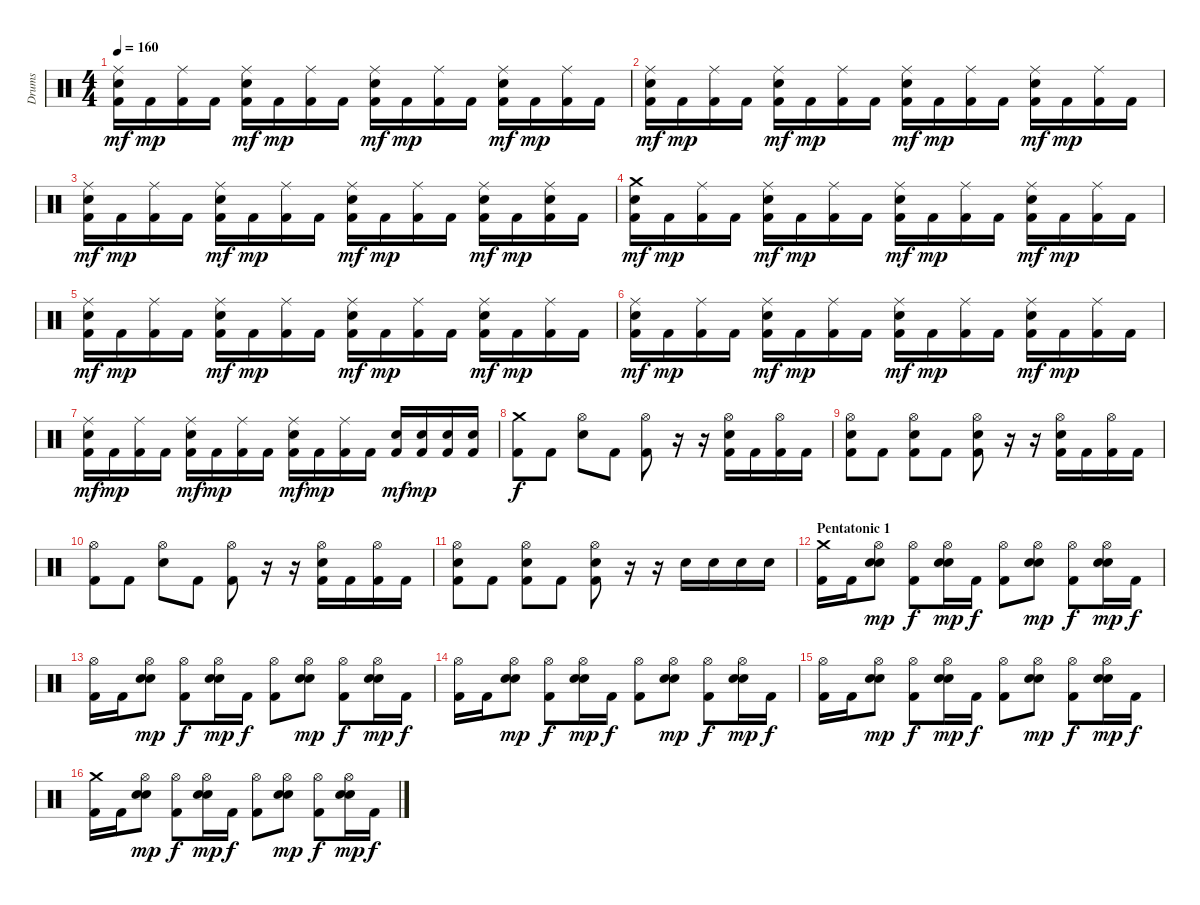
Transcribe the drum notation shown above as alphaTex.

\track ("Drums" "Drums") {instrument percussion}
\staff {score}
\articulation defaults
\ts (4 4)
\tempo 160
\clef neutral
\ks c
("Kick (hit) 2" "Electric Snare (hit)" "Ride (middle)").16{dy mf} "Kick (hit) 2".16{dy mp} ("Kick (hit) 2" "Ride (middle)").16 "Kick (hit) 2".16 ("Kick (hit) 2" "Electric Snare (hit)" "Ride (middle)").16{dy mf} "Kick (hit) 2".16{dy mp} ("Kick (hit) 2" "Ride (middle)").16 "Kick (hit) 2".16 ("Kick (hit) 2" "Electric Snare (hit)" "Ride (middle)").16{dy mf} "Kick (hit) 2".16{dy mp} ("Kick (hit) 2" "Ride (middle)").16 "Kick (hit) 2".16 ("Kick (hit) 2" "Electric Snare (hit)" "Ride (middle)").16{dy mf} "Kick (hit) 2".16{dy mp} ("Kick (hit) 2" "Ride (middle)").16 "Kick (hit) 2".16 |
("Kick (hit) 2" "Electric Snare (hit)" "Ride (middle)").16{dy mf} "Kick (hit) 2".16{dy mp} ("Kick (hit) 2" "Ride (middle)").16 "Kick (hit) 2".16 ("Kick (hit) 2" "Electric Snare (hit)" "Ride (middle)").16{dy mf} "Kick (hit) 2".16{dy mp} ("Kick (hit) 2" "Ride (middle)").16 "Kick (hit) 2".16 ("Kick (hit) 2" "Electric Snare (hit)" "Ride (middle)").16{dy mf} "Kick (hit) 2".16{dy mp} ("Kick (hit) 2" "Ride (middle)").16 "Kick (hit) 2".16 ("Kick (hit) 2" "Electric Snare (hit)" "Ride (middle)").16{dy mf} "Kick (hit) 2".16{dy mp} ("Kick (hit) 2" "Ride (middle)").16 "Kick (hit) 2".16 |
("Kick (hit) 2" "Electric Snare (hit)" "Ride (middle)").16{dy mf} "Kick (hit) 2".16{dy mp} ("Kick (hit) 2" "Ride (middle)").16 "Kick (hit) 2".16 ("Kick (hit) 2" "Electric Snare (hit)" "Ride (middle)").16{dy mf} "Kick (hit) 2".16{dy mp} ("Kick (hit) 2" "Ride (middle)").16 "Kick (hit) 2".16 ("Kick (hit) 2" "Electric Snare (hit)" "Ride (middle)").16{dy mf} "Kick (hit) 2".16{dy mp} ("Kick (hit) 2" "Ride (middle)").16 "Kick (hit) 2".16 ("Kick (hit) 2" "Electric Snare (hit)" "Ride (middle)").16{dy mf} "Kick (hit) 2".16{dy mp} ("Kick (hit) 2" "Electric Snare (hit)" "Ride (middle)").16 "Kick (hit) 2".16 |
("Kick (hit) 2" "Electric Snare (hit)" "Crash medium (hit)").16{dy mf} "Kick (hit) 2".16{dy mp} ("Kick (hit) 2" "Ride (middle)").16 "Kick (hit) 2".16 ("Kick (hit) 2" "Electric Snare (hit)" "Ride (middle)").16{dy mf} "Kick (hit) 2".16{dy mp} ("Kick (hit) 2" "Ride (middle)").16 "Kick (hit) 2".16 ("Kick (hit) 2" "Electric Snare (hit)" "Ride (middle)").16{dy mf} "Kick (hit) 2".16{dy mp} ("Kick (hit) 2" "Ride (middle)").16 "Kick (hit) 2".16 ("Kick (hit) 2" "Electric Snare (hit)" "Ride (middle)").16{dy mf} "Kick (hit) 2".16{dy mp} ("Kick (hit) 2" "Ride (middle)").16 "Kick (hit) 2".16 |
("Kick (hit) 2" "Electric Snare (hit)" "Ride (middle)").16{dy mf} "Kick (hit) 2".16{dy mp} ("Kick (hit) 2" "Ride (middle)").16 "Kick (hit) 2".16 ("Kick (hit) 2" "Electric Snare (hit)" "Ride (middle)").16{dy mf} "Kick (hit) 2".16{dy mp} ("Kick (hit) 2" "Ride (middle)").16 "Kick (hit) 2".16 ("Kick (hit) 2" "Electric Snare (hit)" "Ride (middle)").16{dy mf} "Kick (hit) 2".16{dy mp} ("Kick (hit) 2" "Ride (middle)").16 "Kick (hit) 2".16 ("Kick (hit) 2" "Electric Snare (hit)" "Ride (middle)").16{dy mf} "Kick (hit) 2".16{dy mp} ("Kick (hit) 2" "Ride (middle)").16 "Kick (hit) 2".16 |
("Kick (hit) 2" "Electric Snare (hit)" "Ride (middle)").16{dy mf} "Kick (hit) 2".16{dy mp} ("Kick (hit) 2" "Ride (middle)").16 "Kick (hit) 2".16 ("Kick (hit) 2" "Electric Snare (hit)" "Ride (middle)").16{dy mf} "Kick (hit) 2".16{dy mp} ("Kick (hit) 2" "Ride (middle)").16 "Kick (hit) 2".16 ("Kick (hit) 2" "Electric Snare (hit)" "Ride (middle)").16{dy mf} "Kick (hit) 2".16{dy mp} ("Kick (hit) 2" "Ride (middle)").16 "Kick (hit) 2".16 ("Kick (hit) 2" "Electric Snare (hit)" "Ride (middle)").16{dy mf} "Kick (hit) 2".16{dy mp} ("Kick (hit) 2" "Ride (middle)").16 "Kick (hit) 2".16 |
("Kick (hit) 2" "Electric Snare (hit)" "Ride (middle)").16{dy mf} "Kick (hit) 2".16{dy mp} ("Kick (hit) 2" "Ride (middle)").16 "Kick (hit) 2".16 ("Kick (hit) 2" "Electric Snare (hit)" "Ride (middle)").16{dy mf} "Kick (hit) 2".16{dy mp} ("Kick (hit) 2" "Ride (middle)").16 "Kick (hit) 2".16 ("Kick (hit) 2" "Electric Snare (hit)" "Ride (middle)").16{dy mf} "Kick (hit) 2".16{dy mp} ("Kick (hit) 2" "Ride (middle)").16 "Kick (hit) 2".16 ("Kick (hit) 2" "Electric Snare (hit)").16{dy mf} ("Kick (hit) 2" "Electric Snare (hit)").16{dy mp} ("Kick (hit) 2" "Snare (hit) 2").16 ("Kick (hit) 2" "Snare (hit) 2").16 |
("Kick (hit) 2" "Crash medium (hit)").8{dy f} "Kick (hit) 2".8 ("Electric Snare (hit)" "Hi-Hat (open)").8 "Kick (hit) 2".8 ("Kick (hit) 2" "Hi-Hat (open)").8 r.16 r.16 ("Kick (hit) 2" "Electric Snare (hit)" "Hi-Hat (open)").16 "Kick (hit) 2".16 ("Kick (hit) 2" "Hi-Hat (open)").16 "Kick (hit) 2".16 |
("Kick (hit) 2" "Electric Snare (hit)" "Hi-Hat (open)").8 "Kick (hit) 2".8 ("Electric Snare (hit)" "Kick (hit) 2" "Hi-Hat (open)").8 "Kick (hit) 2".8 ("Kick (hit) 2" "Electric Snare (hit)" "Hi-Hat (open)").8 r.16 r.16 ("Kick (hit) 2" "Electric Snare (hit)" "Hi-Hat (open)").16 "Kick (hit) 2".16 ("Kick (hit) 2" "Hi-Hat (open)").16 "Kick (hit) 2".16 |
("Kick (hit) 2" "Hi-Hat (open)").8 "Kick (hit) 2".8 ("Electric Snare (hit)" "Hi-Hat (open)").8 "Kick (hit) 2".8 ("Kick (hit) 2" "Hi-Hat (open)").8 r.16 r.16 ("Kick (hit) 2" "Electric Snare (hit)" "Hi-Hat (open)").16 "Kick (hit) 2".16 ("Kick (hit) 2" "Hi-Hat (open)").16 "Kick (hit) 2".16 |
("Kick (hit) 2" "Electric Snare (hit)" "Hi-Hat (open)").8 "Kick (hit) 2".8 ("Electric Snare (hit)" "Kick (hit) 2" "Hi-Hat (open)").8 "Kick (hit) 2".8 ("Kick (hit) 2" "Electric Snare (hit)" "Hi-Hat (open)").8 r.16 r.16 "Electric Snare (hit)".16 "Electric Snare (hit)".16 "Electric Snare (hit)".16 "Electric Snare (hit)".16 |
\section ("" "Pentatonic 1")
("Kick (hit) 2" "Crash medium (hit)").16 "Kick (hit) 2".16 ("Snare (hit) 2" "Electric Snare (hit)" "Hi-Hat (open)").8{dy mp} ("Kick (hit) 2" "Hi-Hat (open)").8{dy f} ("Snare (hit) 2" "Electric Snare (hit)" "Hi-Hat (open)").16{dy mp} "Kick (hit) 2".16{dy f} ("Kick (hit) 2" "Hi-Hat (open)").8 ("Snare (hit) 2" "Electric Snare (hit)" "Hi-Hat (open)").8{dy mp} ("Kick (hit) 2" "Hi-Hat (open)").8{dy f} ("Snare (hit) 2" "Electric Snare (hit)" "Hi-Hat (open)").16{dy mp} "Kick (hit) 2".16{dy f} |
("Kick (hit) 2" "Hi-Hat (open)").16 "Kick (hit) 2".16 ("Snare (hit) 2" "Electric Snare (hit)" "Hi-Hat (open)").8{dy mp} ("Kick (hit) 2" "Hi-Hat (open)").8{dy f} ("Snare (hit) 2" "Electric Snare (hit)" "Hi-Hat (open)").16{dy mp} "Kick (hit) 2".16{dy f} ("Kick (hit) 2" "Hi-Hat (open)").8 ("Snare (hit) 2" "Electric Snare (hit)" "Hi-Hat (open)").8{dy mp} ("Kick (hit) 2" "Hi-Hat (open)").8{dy f} ("Snare (hit) 2" "Electric Snare (hit)" "Hi-Hat (open)").16{dy mp} "Kick (hit) 2".16{dy f} |
("Kick (hit) 2" "Hi-Hat (open)").16 "Kick (hit) 2".16 ("Snare (hit) 2" "Electric Snare (hit)" "Hi-Hat (open)").8{dy mp} ("Kick (hit) 2" "Hi-Hat (open)").8{dy f} ("Snare (hit) 2" "Electric Snare (hit)" "Hi-Hat (open)").16{dy mp} "Kick (hit) 2".16{dy f} ("Kick (hit) 2" "Hi-Hat (open)").8 ("Snare (hit) 2" "Electric Snare (hit)" "Hi-Hat (open)").8{dy mp} ("Kick (hit) 2" "Hi-Hat (open)").8{dy f} ("Snare (hit) 2" "Electric Snare (hit)" "Hi-Hat (open)").16{dy mp} "Kick (hit) 2".16{dy f} |
("Kick (hit) 2" "Hi-Hat (open)").16 "Kick (hit) 2".16 ("Snare (hit) 2" "Electric Snare (hit)" "Hi-Hat (open)").8{dy mp} ("Kick (hit) 2" "Hi-Hat (open)").8{dy f} ("Snare (hit) 2" "Electric Snare (hit)" "Hi-Hat (open)").16{dy mp} "Kick (hit) 2".16{dy f} ("Kick (hit) 2" "Hi-Hat (open)").8 ("Snare (hit) 2" "Electric Snare (hit)" "Hi-Hat (open)").8{dy mp} ("Kick (hit) 2" "Hi-Hat (open)").8{dy f} ("Snare (hit) 2" "Electric Snare (hit)" "Hi-Hat (open)").16{dy mp} "Kick (hit) 2".16{dy f} |
("Kick (hit) 2" "Crash medium (hit)").16 "Kick (hit) 2".16 ("Snare (hit) 2" "Electric Snare (hit)" "Hi-Hat (open)").8{dy mp} ("Kick (hit) 2" "Hi-Hat (open)").8{dy f} ("Snare (hit) 2" "Electric Snare (hit)" "Hi-Hat (open)").16{dy mp} "Kick (hit) 2".16{dy f} ("Kick (hit) 2" "Hi-Hat (open)").8 ("Snare (hit) 2" "Electric Snare (hit)" "Hi-Hat (open)").8{dy mp} ("Kick (hit) 2" "Hi-Hat (open)").8{dy f} ("Snare (hit) 2" "Electric Snare (hit)" "Hi-Hat (open)").16{dy mp} "Kick (hit) 2".16{dy f}
